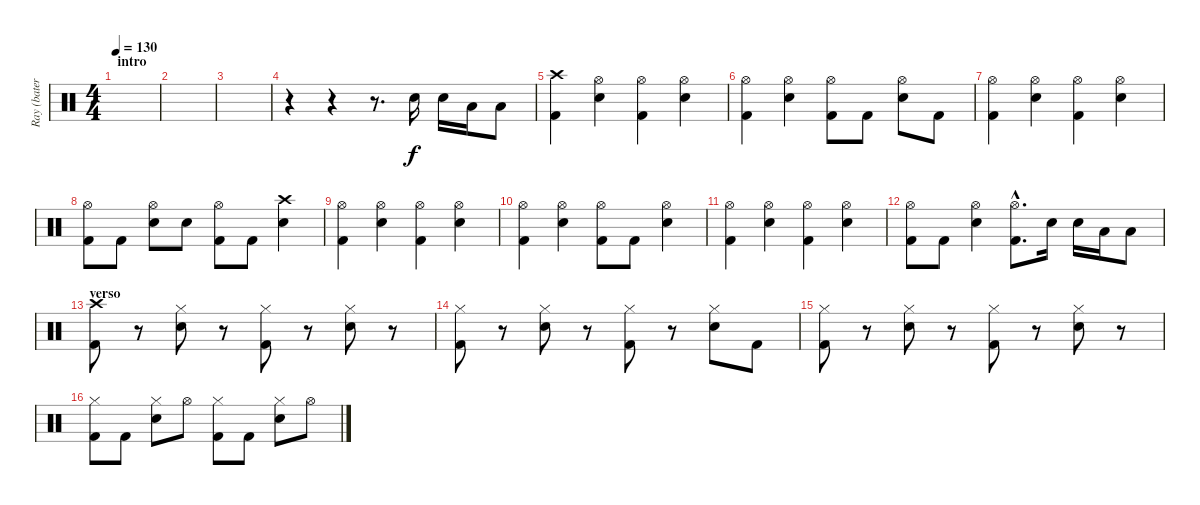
\track ("Ray (batería)" "Ray (bater") {instrument percussion}
\staff {score}
\articulation defaults
\ts (4 4)
\section ("" "intro")
\tempo 130
\clef neutral
\ks c
|
|
|
r.4 r.4 r.8{d} "Snare (hit) 2".16 "Snare (hit) 2".16 "Low Tom (hit)".16 "Low Tom (hit)".8 |
\section ("" "")
("Crash high (hit)" "Kick (hit) 2").4 ("Hi-Hat (open)" "Snare (hit) 2").4 ("Hi-Hat (open)" "Kick (hit) 2").4 ("Hi-Hat (open)" "Snare (hit) 2").4 |
("Hi-Hat (open)" "Kick (hit) 2").4 ("Hi-Hat (open)" "Snare (hit) 2").4 ("Hi-Hat (open)" "Kick (hit) 2").8 "Kick (hit) 2".8 ("Hi-Hat (open)" "Snare (hit) 2").8 "Kick (hit) 2".8 |
("Hi-Hat (open)" "Kick (hit) 2").4 ("Hi-Hat (open)" "Snare (hit) 2").4 ("Hi-Hat (open)" "Kick (hit) 2").4 ("Hi-Hat (open)" "Snare (hit) 2").4 |
("Hi-Hat (open)" "Kick (hit) 2").8 "Kick (hit) 2".8 ("Hi-Hat (open)" "Snare (hit) 2").8 "Snare (hit) 2".8 ("Hi-Hat (open)" "Kick (hit) 2").8 "Kick (hit) 2".8 ("Crash high (hit)" "Snare (hit) 2").4 |
("Hi-Hat (open)" "Kick (hit) 2").4 ("Hi-Hat (open)" "Snare (hit) 2").4 ("Hi-Hat (open)" "Kick (hit) 2").4 ("Hi-Hat (open)" "Snare (hit) 2").4 |
("Hi-Hat (open)" "Kick (hit) 2").4 ("Hi-Hat (open)" "Snare (hit) 2").4 ("Hi-Hat (open)" "Kick (hit) 2").8 "Kick (hit) 2".8 ("Hi-Hat (open)" "Snare (hit) 2").4 |
("Hi-Hat (open)" "Kick (hit) 2").4 ("Hi-Hat (open)" "Snare (hit) 2").4 ("Hi-Hat (open)" "Kick (hit) 2").4 ("Hi-Hat (open)" "Snare (hit) 2").4 |
("Hi-Hat (open)" "Kick (hit) 2").8 "Kick (hit) 2".8 ("Hi-Hat (open)" "Snare (hit) 2").4 ("Hi-Hat (open)"{hac} "Kick (hit) 2"{hac}).8{d} "Snare (hit) 2".16 "Snare (hit) 2".16 "Low Tom (hit)".16 "Low Tom (hit)".8 |
\section ("" "verso")
("Crash high (hit)" "Kick (hit) 2").8 r.8 ("Hi-Hat (closed)" "Snare (hit) 2").8 r.8 ("Hi-Hat (closed)" "Kick (hit) 2").8 r.8 ("Hi-Hat (closed)" "Snare (hit) 2").8 r.8 |
("Hi-Hat (closed)" "Kick (hit) 2").8 r.8 ("Hi-Hat (closed)" "Snare (hit) 2").8 r.8 ("Hi-Hat (closed)" "Kick (hit) 2").8 r.8 ("Hi-Hat (closed)" "Snare (hit) 2").8 "Kick (hit) 2".8 |
("Hi-Hat (closed)" "Kick (hit) 2").8 r.8 ("Hi-Hat (closed)" "Snare (hit) 2").8 r.8 ("Hi-Hat (closed)" "Kick (hit) 2").8 r.8 ("Hi-Hat (closed)" "Snare (hit) 2").8 r.8 |
("Hi-Hat (closed)" "Kick (hit) 2").8 "Kick (hit) 2".8 ("Hi-Hat (closed)" "Snare (hit) 2").8 "Hi-Hat (open)".8 ("Hi-Hat (closed)" "Kick (hit) 2").8 "Kick (hit) 2".8 ("Hi-Hat (closed)" "Snare (hit) 2").8 "Hi-Hat (open)".8
